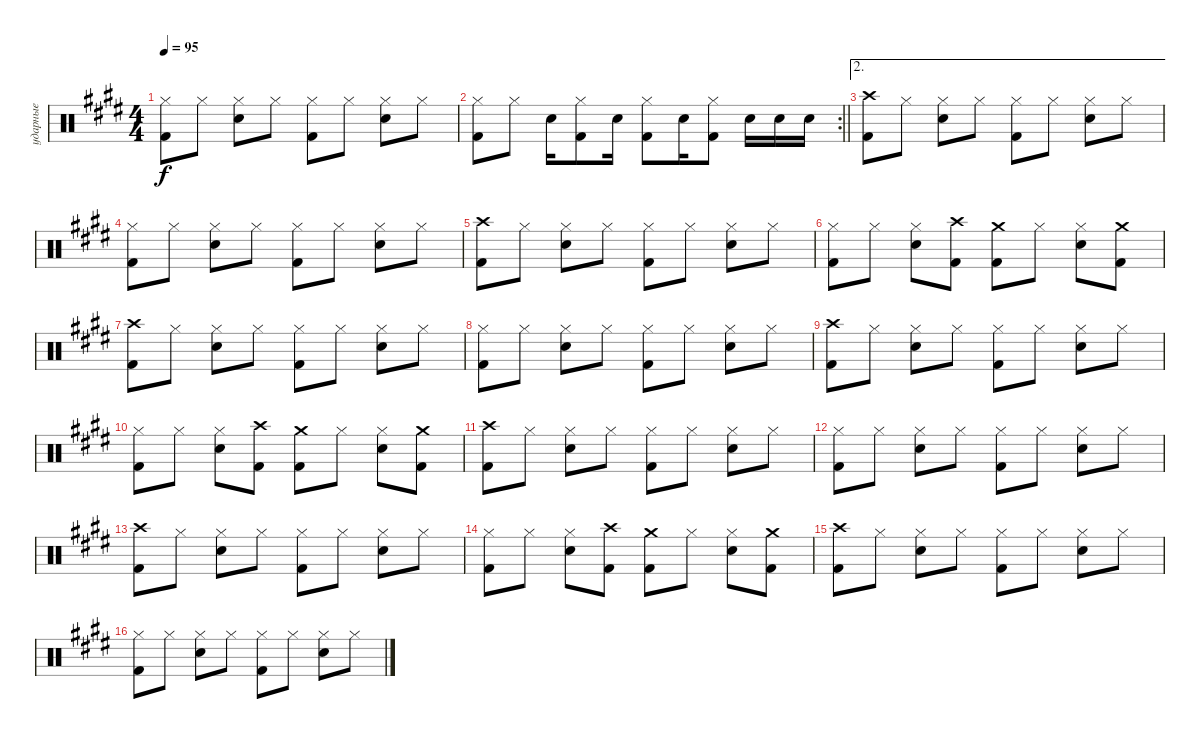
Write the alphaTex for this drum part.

\track ("ударные" "ударные") {instrument percussion}
\staff {score}
\articulation defaults
\ts (4 4)
\tempo 95
\clef neutral
\ks e
("Hi-Hat (closed)" "Kick (hit) 2").8{dy f} "Hi-Hat (closed)".8 ("Hi-Hat (closed)" "Snare (hit) 2").8 "Hi-Hat (closed)".8 ("Hi-Hat (closed)" "Kick (hit) 2").8 "Hi-Hat (closed)".8 ("Hi-Hat (closed)" "Snare (hit) 2").8 "Hi-Hat (closed)".8 |
\rc 2
\barLineRight lightlight
("Hi-Hat (closed)" "Kick (hit) 2").8 "Hi-Hat (closed)".8 "Snare (hit) 2".16 ("Hi-Hat (closed)" "Kick (hit) 2").8 "Snare (hit) 2".16 ("Hi-Hat (closed)" "Kick (hit) 2").8 "Snare (hit) 2".16 ("Hi-Hat (closed)" "Kick (hit) 2").8 "Snare (hit) 2".16 "Snare (hit) 2".16 "Snare (hit) 2".16 |
\ae 2
\section ("" "")
("Crash high (hit)" "Kick (hit) 2").8 "Hi-Hat (closed)".8 ("Hi-Hat (closed)" "Snare (hit) 2").8 "Hi-Hat (closed)".8 ("Hi-Hat (closed)" "Kick (hit) 2").8 "Hi-Hat (closed)".8 ("Hi-Hat (closed)" "Snare (hit) 2").8 "Hi-Hat (closed)".8 |
("Hi-Hat (closed)" "Kick (hit) 2").8 "Hi-Hat (closed)".8 ("Hi-Hat (closed)" "Snare (hit) 2").8 "Hi-Hat (closed)".8 ("Hi-Hat (closed)" "Kick (hit) 2").8 "Hi-Hat (closed)".8 ("Hi-Hat (closed)" "Snare (hit) 2").8 "Hi-Hat (closed)".8 |
("Crash high (hit)" "Kick (hit) 2").8 "Hi-Hat (closed)".8 ("Hi-Hat (closed)" "Snare (hit) 2").8 "Hi-Hat (closed)".8 ("Hi-Hat (closed)" "Kick (hit) 2").8 "Hi-Hat (closed)".8 ("Hi-Hat (closed)" "Snare (hit) 2").8 "Hi-Hat (closed)".8 |
("Hi-Hat (closed)" "Kick (hit) 2").8 "Hi-Hat (closed)".8 ("Hi-Hat (closed)" "Snare (hit) 2").8 ("Crash high (hit)" "Kick (hit) 2").8 ("Crash medium (hit)" "Kick (hit) 2").8 "Hi-Hat (closed)".8 ("Hi-Hat (closed)" "Snare (hit) 2").8 ("Crash medium (hit)" "Kick (hit) 2").8 |
("Crash high (hit)" "Kick (hit) 2").8 "Hi-Hat (closed)".8 ("Hi-Hat (closed)" "Snare (hit) 2").8 "Hi-Hat (closed)".8 ("Hi-Hat (closed)" "Kick (hit) 2").8 "Hi-Hat (closed)".8 ("Hi-Hat (closed)" "Snare (hit) 2").8 "Hi-Hat (closed)".8 |
("Hi-Hat (closed)" "Kick (hit) 2").8 "Hi-Hat (closed)".8 ("Hi-Hat (closed)" "Snare (hit) 2").8 "Hi-Hat (closed)".8 ("Hi-Hat (closed)" "Kick (hit) 2").8 "Hi-Hat (closed)".8 ("Hi-Hat (closed)" "Snare (hit) 2").8 "Hi-Hat (closed)".8 |
("Crash high (hit)" "Kick (hit) 2").8 "Hi-Hat (closed)".8 ("Hi-Hat (closed)" "Snare (hit) 2").8 "Hi-Hat (closed)".8 ("Hi-Hat (closed)" "Kick (hit) 2").8 "Hi-Hat (closed)".8 ("Hi-Hat (closed)" "Snare (hit) 2").8 "Hi-Hat (closed)".8 |
("Hi-Hat (closed)" "Kick (hit) 2").8 "Hi-Hat (closed)".8 ("Hi-Hat (closed)" "Snare (hit) 2").8 ("Crash high (hit)" "Kick (hit) 2").8 ("Crash medium (hit)" "Kick (hit) 2").8 "Hi-Hat (closed)".8 ("Hi-Hat (closed)" "Snare (hit) 2").8 ("Crash medium (hit)" "Kick (hit) 2").8 |
("Crash high (hit)" "Kick (hit) 2").8 "Hi-Hat (closed)".8 ("Hi-Hat (closed)" "Snare (hit) 2").8 "Hi-Hat (closed)".8 ("Hi-Hat (closed)" "Kick (hit) 2").8 "Hi-Hat (closed)".8 ("Hi-Hat (closed)" "Snare (hit) 2").8 "Hi-Hat (closed)".8 |
("Hi-Hat (closed)" "Kick (hit) 2").8 "Hi-Hat (closed)".8 ("Hi-Hat (closed)" "Snare (hit) 2").8 "Hi-Hat (closed)".8 ("Hi-Hat (closed)" "Kick (hit) 2").8 "Hi-Hat (closed)".8 ("Hi-Hat (closed)" "Snare (hit) 2").8 "Hi-Hat (closed)".8 |
("Crash high (hit)" "Kick (hit) 2").8 "Hi-Hat (closed)".8 ("Hi-Hat (closed)" "Snare (hit) 2").8 "Hi-Hat (closed)".8 ("Hi-Hat (closed)" "Kick (hit) 2").8 "Hi-Hat (closed)".8 ("Hi-Hat (closed)" "Snare (hit) 2").8 "Hi-Hat (closed)".8 |
("Hi-Hat (closed)" "Kick (hit) 2").8 "Hi-Hat (closed)".8 ("Hi-Hat (closed)" "Snare (hit) 2").8 ("Crash high (hit)" "Kick (hit) 2").8 ("Crash medium (hit)" "Kick (hit) 2").8 "Hi-Hat (closed)".8 ("Hi-Hat (closed)" "Snare (hit) 2").8 ("Crash medium (hit)" "Kick (hit) 2").8 |
("Crash high (hit)" "Kick (hit) 2").8 "Hi-Hat (closed)".8 ("Hi-Hat (closed)" "Snare (hit) 2").8 "Hi-Hat (closed)".8 ("Hi-Hat (closed)" "Kick (hit) 2").8 "Hi-Hat (closed)".8 ("Hi-Hat (closed)" "Snare (hit) 2").8 "Hi-Hat (closed)".8 |
("Hi-Hat (closed)" "Kick (hit) 2").8 "Hi-Hat (closed)".8 ("Hi-Hat (closed)" "Snare (hit) 2").8 "Hi-Hat (closed)".8 ("Hi-Hat (closed)" "Kick (hit) 2").8 "Hi-Hat (closed)".8 ("Hi-Hat (closed)" "Snare (hit) 2").8 "Hi-Hat (closed)".8
